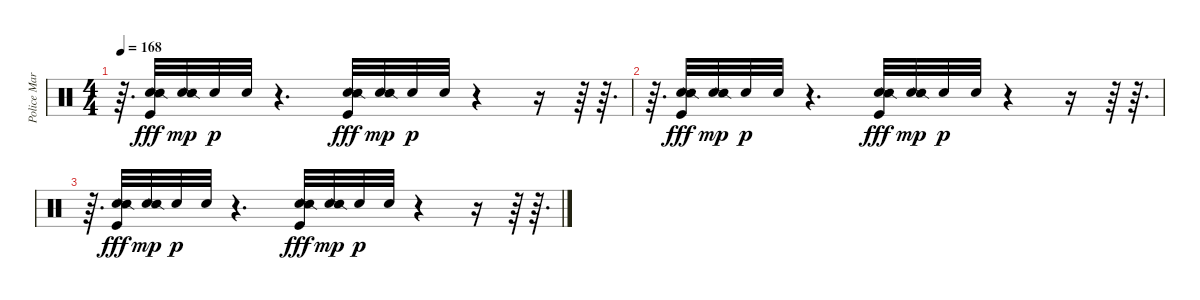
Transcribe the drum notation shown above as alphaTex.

\track ("Police March 2" "Police Mar") {instrument percussion}
\staff {score}
\articulation defaults
\ts (4 4)
\tempo 168
\clef neutral
\ks c
r.64{d dy p} ("Hand Clap (hit)" "Snare (side stick) 2" "Kick (hit)").32{dy fff} ("Hand Clap (hit)" "Snare (side stick) 2").32{dy mp} "Hand Clap (hit)".32{dy p} "Hand Clap (hit)".32 r.4{d} ("Hand Clap (hit)" "Snare (side stick) 2" "Kick (hit)").32{dy fff} ("Hand Clap (hit)" "Snare (side stick) 2").32{dy mp} "Hand Clap (hit)".32{dy p} "Hand Clap (hit)".32 r.4 r.16 r.64 r.64{d} |
r.64{d} ("Hand Clap (hit)" "Snare (side stick) 2" "Kick (hit)").32{dy fff} ("Hand Clap (hit)" "Snare (side stick) 2").32{dy mp} "Hand Clap (hit)".32{dy p} "Hand Clap (hit)".32 r.4{d} ("Hand Clap (hit)" "Snare (side stick) 2" "Kick (hit)").32{dy fff} ("Hand Clap (hit)" "Snare (side stick) 2").32{dy mp} "Hand Clap (hit)".32{dy p} "Hand Clap (hit)".32 r.4 r.16 r.64 r.64{d} |
r.64{d} ("Hand Clap (hit)" "Snare (side stick) 2" "Kick (hit)").32{dy fff} ("Hand Clap (hit)" "Snare (side stick) 2").32{dy mp} "Hand Clap (hit)".32{dy p} "Hand Clap (hit)".32 r.4{d} ("Hand Clap (hit)" "Snare (side stick) 2" "Kick (hit)").32{dy fff} ("Hand Clap (hit)" "Snare (side stick) 2").32{dy mp} "Hand Clap (hit)".32{dy p} "Hand Clap (hit)".32 r.4 r.16 r.64 r.64{d}
